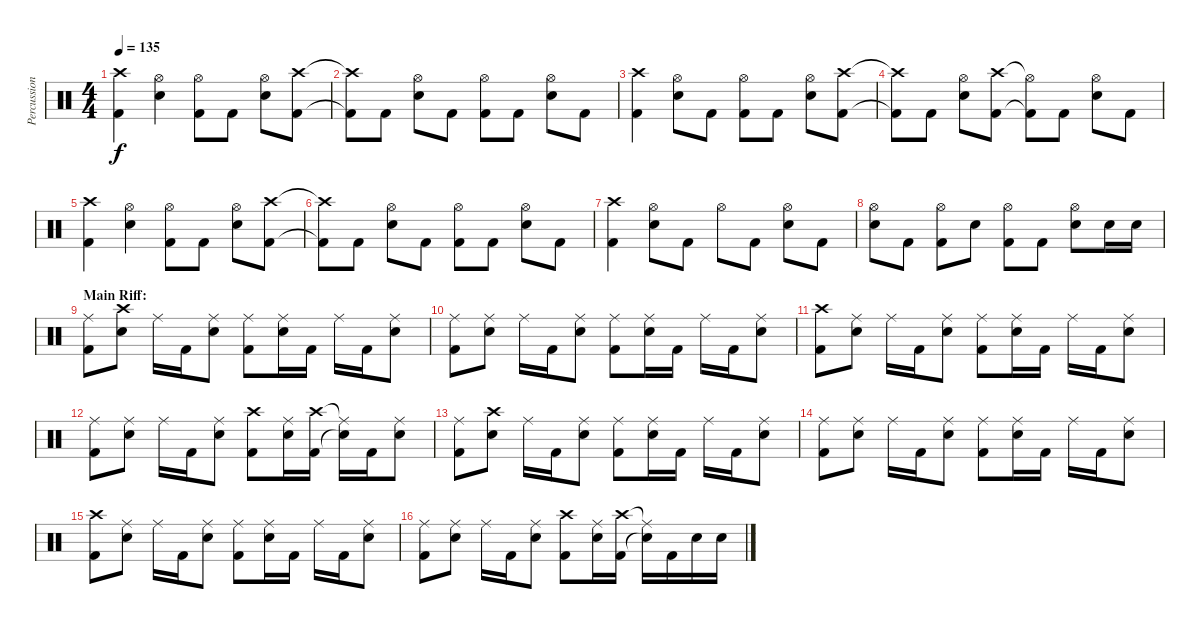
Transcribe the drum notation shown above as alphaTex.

\track ("Percussion" "Percussion") {instrument percussion}
\staff {score}
\articulation defaults
\ts (4 4)
\tempo 135
\clef neutral
\ks c
("Crash high (hit)" "Kick (hit) 2").4{dy f} ("Hi-Hat (open)" "Electric Snare (hit)").4 ("Hi-Hat (open)" "Kick (hit) 2").8 "Kick (hit) 2".8 ("Hi-Hat (open)" "Electric Snare (hit)").8 ("Crash high (hit)" "Kick (hit) 2").8 |
("Crash high (hit)"{t} "Kick (hit) 2"{t}).8 "Kick (hit) 2".8 ("Hi-Hat (open)" "Electric Snare (hit)").8 "Kick (hit) 2".8 ("Hi-Hat (open)" "Kick (hit) 2").8 "Kick (hit) 2".8 ("Hi-Hat (open)" "Electric Snare (hit)").8 "Kick (hit) 2".8 |
("Crash high (hit)" "Kick (hit) 2").4 ("Hi-Hat (open)" "Electric Snare (hit)").8 "Kick (hit) 2".8 ("Hi-Hat (open)" "Kick (hit) 2").8 "Kick (hit) 2".8 ("Hi-Hat (open)" "Electric Snare (hit)").8 ("Crash high (hit)" "Kick (hit) 2").8 |
("Crash high (hit)"{t} "Kick (hit) 2"{t}).8 "Kick (hit) 2".8 ("Hi-Hat (open)" "Electric Snare (hit)").8 ("Crash high (hit)" "Kick (hit) 2").8 ("Hi-Hat (open)"{t} "Kick (hit) 2"{t}).8 "Kick (hit) 2".8 ("Hi-Hat (open)" "Electric Snare (hit)").8 "Kick (hit) 2".8 |
("Crash high (hit)" "Kick (hit) 2").4 ("Hi-Hat (open)" "Electric Snare (hit)").4 ("Hi-Hat (open)" "Kick (hit) 2").8 "Kick (hit) 2".8 ("Hi-Hat (open)" "Electric Snare (hit)").8 ("Crash high (hit)" "Kick (hit) 2").8 |
("Crash high (hit)"{t} "Kick (hit) 2"{t}).8 "Kick (hit) 2".8 ("Hi-Hat (open)" "Electric Snare (hit)").8 "Kick (hit) 2".8 ("Hi-Hat (open)" "Kick (hit) 2").8 "Kick (hit) 2".8 ("Hi-Hat (open)" "Electric Snare (hit)").8 "Kick (hit) 2".8 |
("Crash high (hit)" "Kick (hit) 2").4 ("Hi-Hat (open)" "Electric Snare (hit)").8 "Kick (hit) 2".8 "Hi-Hat (open)".8 "Kick (hit) 2".8 ("Hi-Hat (open)" "Electric Snare (hit)").8 "Kick (hit) 2".8 |
("Hi-Hat (open)" "Electric Snare (hit)").8 "Kick (hit) 2".8 ("Hi-Hat (open)" "Kick (hit) 2").8 "Electric Snare (hit)".8 ("Hi-Hat (open)" "Kick (hit) 2").8 "Kick (hit) 2".8 ("Hi-Hat (open)" "Electric Snare (hit)").8 "Electric Snare (hit)".16 "Electric Snare (hit)".16 |
\section ("" "Main Riff:")
("Ride (middle)" "Kick (hit) 2").8 ("Crash high (hit)" "Electric Snare (hit)").8 "Ride (middle)".16 "Kick (hit) 2".16 ("Ride (middle)" "Electric Snare (hit)").8 ("Ride (middle)" "Kick (hit) 2").8 ("Ride (middle)" "Electric Snare (hit)").16 "Kick (hit) 2".16 "Ride (middle)".16 "Kick (hit) 2".16 ("Ride (middle)" "Electric Snare (hit)").8 |
("Ride (middle)" "Kick (hit) 2").8 ("Ride (middle)" "Electric Snare (hit)").8 "Ride (middle)".16 "Kick (hit) 2".16 ("Ride (middle)" "Electric Snare (hit)").8 ("Ride (middle)" "Kick (hit) 2").8 ("Ride (middle)" "Electric Snare (hit)").16 "Kick (hit) 2".16 "Ride (middle)".16 "Kick (hit) 2".16 ("Ride (middle)" "Electric Snare (hit)").8 |
("Crash high (hit)" "Kick (hit) 2").8 ("Ride (middle)" "Electric Snare (hit)").8 "Ride (middle)".16 "Kick (hit) 2".16 ("Ride (middle)" "Electric Snare (hit)").8 ("Ride (middle)" "Kick (hit) 2").8 ("Ride (middle)" "Electric Snare (hit)").16 "Kick (hit) 2".16 "Ride (middle)".16 "Kick (hit) 2".16 ("Ride (middle)" "Electric Snare (hit)").8 |
("Ride (middle)" "Kick (hit) 2").8 ("Ride (middle)" "Electric Snare (hit)").8 "Ride (middle)".16 "Kick (hit) 2".16 ("Ride (middle)" "Electric Snare (hit)").8 ("Crash high (hit)" "Kick (hit) 2").8 ("Ride (middle)" "Electric Snare (hit)").16 ("Crash high (hit)" "Kick (hit) 2").16 ("Ride (middle)"{t} "Snare (hit)"{t}).16 "Kick (hit) 2".16 ("Ride (middle)" "Electric Snare (hit)").8 |
("Ride (middle)" "Kick (hit) 2").8 ("Crash high (hit)" "Electric Snare (hit)").8 "Ride (middle)".16 "Kick (hit) 2".16 ("Ride (middle)" "Electric Snare (hit)").8 ("Ride (middle)" "Kick (hit) 2").8 ("Ride (middle)" "Electric Snare (hit)").16 "Kick (hit) 2".16 "Ride (middle)".16 "Kick (hit) 2".16 ("Ride (middle)" "Electric Snare (hit)").8 |
("Ride (middle)" "Kick (hit) 2").8 ("Ride (middle)" "Electric Snare (hit)").8 "Ride (middle)".16 "Kick (hit) 2".16 ("Ride (middle)" "Electric Snare (hit)").8 ("Ride (middle)" "Kick (hit) 2").8 ("Ride (middle)" "Electric Snare (hit)").16 "Kick (hit) 2".16 "Ride (middle)".16 "Kick (hit) 2".16 ("Ride (middle)" "Electric Snare (hit)").8 |
("Crash high (hit)" "Kick (hit) 2").8 ("Ride (middle)" "Electric Snare (hit)").8 "Ride (middle)".16 "Kick (hit) 2".16 ("Ride (middle)" "Electric Snare (hit)").8 ("Ride (middle)" "Kick (hit) 2").8 ("Ride (middle)" "Electric Snare (hit)").16 "Kick (hit) 2".16 "Ride (middle)".16 "Kick (hit) 2".16 ("Ride (middle)" "Electric Snare (hit)").8 |
("Ride (middle)" "Kick (hit) 2").8 ("Ride (middle)" "Electric Snare (hit)").8 "Ride (middle)".16 "Kick (hit) 2".16 ("Ride (middle)" "Electric Snare (hit)").8 ("Crash high (hit)" "Kick (hit) 2").8 ("Ride (middle)" "Electric Snare (hit)").16 ("Crash high (hit)" "Kick (hit) 2").16 ("Ride (middle)"{t} "Snare (hit)"{t}).16 "Kick (hit) 2".16 "Electric Snare (hit)".16 "Electric Snare (hit)".16
